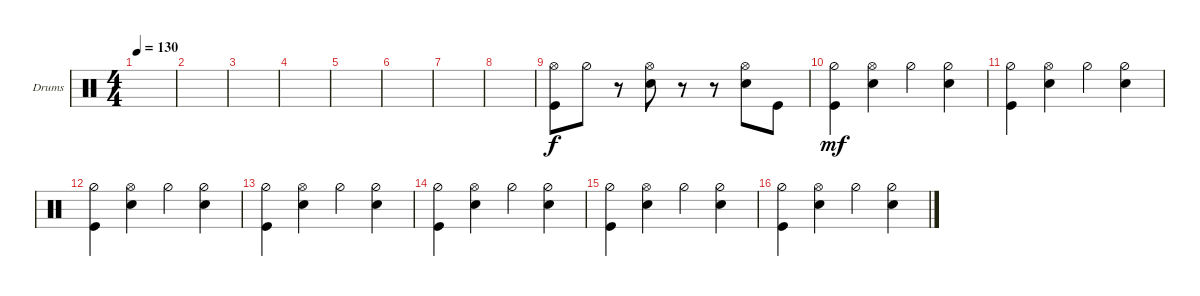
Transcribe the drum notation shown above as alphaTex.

\defaultSystemsLayout 4
\bracketExtendMode groupsimilarinstruments
\firstSystemTrackNameOrientation horizontal
\otherSystemsTrackNameOrientation horizontal
\track ("Drumkit" "Drums") {instrument percussion}
\staff {score}
\articulation defaults
\ts (4 4)
\tempo 130
\clef neutral
\ks c
|
|
|
|
|
|
|
|
("Kick (hit)" "Hi-Hat (open)").8{dy f} "Hi-Hat (half)".8 r.8 ("Snare (hit) 2" "Hi-Hat (open)").8 r.8 r.8 ("Snare (hit) 2" "Hi-Hat (open)").8 "Kick (hit)".8 |
("Hi-Hat (half)" "Kick (hit)").4{dy mf} ("Snare (hit) 2" "Hi-Hat (open)").4 "Hi-Hat (half)".4 ("Snare (hit) 2" "Hi-Hat (half)").4 |
("Hi-Hat (half)" "Kick (hit)").4 ("Snare (hit) 2" "Hi-Hat (open)").4 "Hi-Hat (half)".4 ("Snare (hit) 2" "Hi-Hat (half)").4 |
("Hi-Hat (half)" "Kick (hit)").4 ("Snare (hit) 2" "Hi-Hat (open)").4 "Hi-Hat (half)".4 ("Snare (hit) 2" "Hi-Hat (half)").4 |
("Hi-Hat (half)" "Kick (hit)").4 ("Snare (hit) 2" "Hi-Hat (open)").4 "Hi-Hat (half)".4 ("Snare (hit) 2" "Hi-Hat (half)").4 |
("Hi-Hat (half)" "Kick (hit)").4 ("Snare (hit) 2" "Hi-Hat (open)").4 "Hi-Hat (half)".4 ("Snare (hit) 2" "Hi-Hat (half)").4 |
("Hi-Hat (half)" "Kick (hit)").4 ("Snare (hit) 2" "Hi-Hat (open)").4 "Hi-Hat (half)".4 ("Snare (hit) 2" "Hi-Hat (half)").4 |
("Hi-Hat (half)" "Kick (hit)").4 ("Snare (hit) 2" "Hi-Hat (open)").4 "Hi-Hat (half)".4 ("Snare (hit) 2" "Hi-Hat (half)").4
